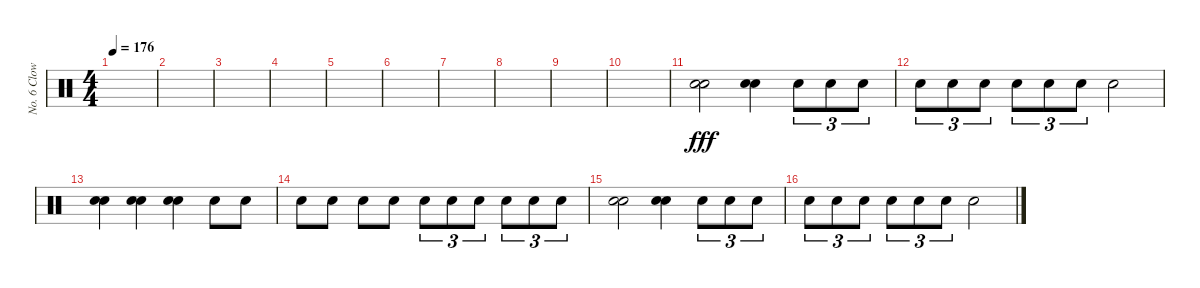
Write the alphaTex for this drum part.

\track ("No. 6 Clown" "No. 6 Clow") {instrument percussion}
\staff {score}
\articulation defaults
\ts (4 4)
\tempo 176
\clef neutral
\ks c
|
|
|
|
|
|
|
|
|
|
("Electric Snare (hit)" "Electric Snare (hit)").2{dy fff} ("Electric Snare (hit)" "Electric Snare (hit)").4 "Electric Snare (hit)".8{tu (3 2)} "Electric Snare (hit)".8{tu (3 2)} "Electric Snare (hit)".8{tu (3 2)} |
"Electric Snare (hit)".8{tu (3 2)} "Electric Snare (hit)".8{tu (3 2)} "Electric Snare (hit)".8{tu (3 2)} "Electric Snare (hit)".8{tu (3 2)} "Electric Snare (hit)".8{tu (3 2)} "Electric Snare (hit)".8{tu (3 2)} "Electric Snare (hit)".2 |
("Electric Snare (hit)" "Electric Snare (hit)").4 ("Electric Snare (hit)" "Electric Snare (hit)").4 ("Electric Snare (hit)" "Electric Snare (hit)").4 "Electric Snare (hit)".8 "Electric Snare (hit)".8 |
"Electric Snare (hit)".8 "Electric Snare (hit)".8 "Electric Snare (hit)".8 "Electric Snare (hit)".8 "Electric Snare (hit)".8{tu (3 2)} "Electric Snare (hit)".8{tu (3 2)} "Electric Snare (hit)".8{tu (3 2)} "Electric Snare (hit)".8{tu (3 2)} "Electric Snare (hit)".8{tu (3 2)} "Electric Snare (hit)".8{tu (3 2)} |
("Electric Snare (hit)" "Electric Snare (hit)").2 ("Electric Snare (hit)" "Electric Snare (hit)").4 "Electric Snare (hit)".8{tu (3 2)} "Electric Snare (hit)".8{tu (3 2)} "Electric Snare (hit)".8{tu (3 2)} |
"Electric Snare (hit)".8{tu (3 2)} "Electric Snare (hit)".8{tu (3 2)} "Electric Snare (hit)".8{tu (3 2)} "Electric Snare (hit)".8{tu (3 2)} "Electric Snare (hit)".8{tu (3 2)} "Electric Snare (hit)".8{tu (3 2)} "Electric Snare (hit)".2
